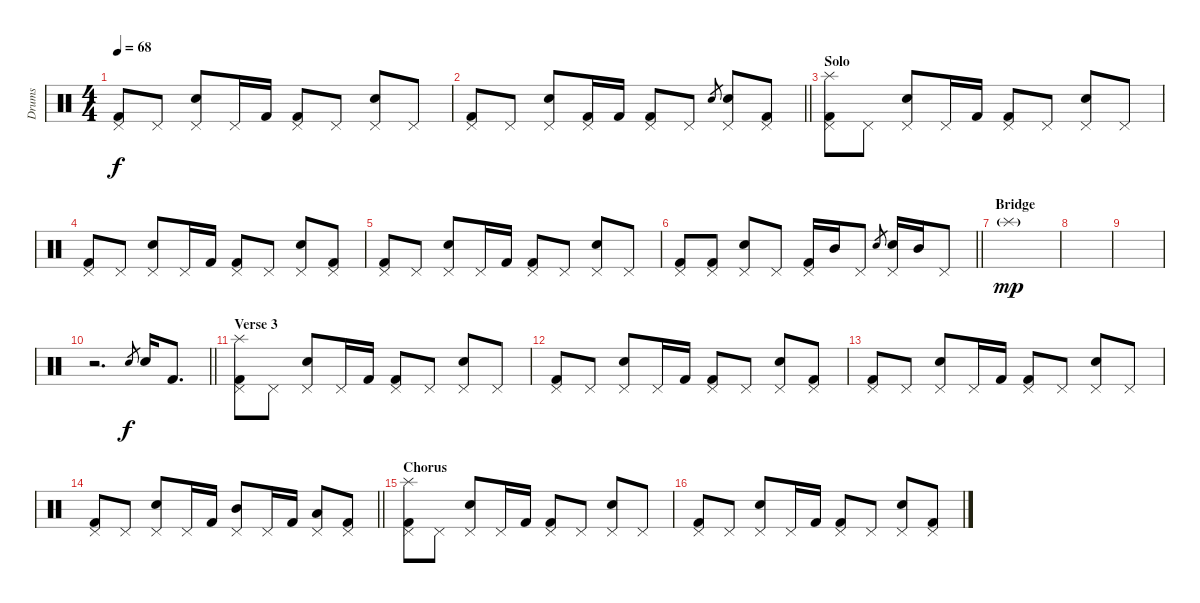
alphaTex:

\track ("Drums" "Drums") {instrument percussion}
\staff {score}
\articulation defaults
\ts (4 4)
\tempo 68
\clef neutral
\ks c
("Pedal Hi-Hat (hit)" "Kick (hit) 2").8{dy f} "Pedal Hi-Hat (hit)".8 ("Pedal Hi-Hat (hit)" "Electric Snare (hit)").8 "Pedal Hi-Hat (hit)".16 "Kick (hit) 2".16 ("Pedal Hi-Hat (hit)" "Kick (hit) 2").8 "Pedal Hi-Hat (hit)".8 ("Pedal Hi-Hat (hit)" "Electric Snare (hit)").8 "Pedal Hi-Hat (hit)".8 |
\barLineRight lightlight
("Pedal Hi-Hat (hit)" "Kick (hit) 2").8 "Pedal Hi-Hat (hit)".8 ("Pedal Hi-Hat (hit)" "Electric Snare (hit)").8 ("Pedal Hi-Hat (hit)" "Kick (hit) 2").16 "Kick (hit) 2".16 ("Pedal Hi-Hat (hit)" "Kick (hit) 2").8 "Pedal Hi-Hat (hit)".8 "Electric Snare (hit)"{h}.8{gr} ("Pedal Hi-Hat (hit)" "Electric Snare (hit)").8 ("Pedal Hi-Hat (hit)" "Kick (hit) 2").8 |
\section ("" "Solo")
("Pedal Hi-Hat (hit)" "Splash (hit)" "Kick (hit) 2").8 "Pedal Hi-Hat (hit)".8 ("Pedal Hi-Hat (hit)" "Electric Snare (hit)").8 "Pedal Hi-Hat (hit)".16 "Kick (hit) 2".16 ("Pedal Hi-Hat (hit)" "Kick (hit) 2").8 "Pedal Hi-Hat (hit)".8 ("Pedal Hi-Hat (hit)" "Electric Snare (hit)").8 "Pedal Hi-Hat (hit)".8 |
("Pedal Hi-Hat (hit)" "Kick (hit) 2").8 "Pedal Hi-Hat (hit)".8 ("Pedal Hi-Hat (hit)" "Electric Snare (hit)").8 "Pedal Hi-Hat (hit)".16 "Kick (hit) 2".16 ("Pedal Hi-Hat (hit)" "Kick (hit) 2").8 "Pedal Hi-Hat (hit)".8 ("Pedal Hi-Hat (hit)" "Electric Snare (hit)").8 ("Pedal Hi-Hat (hit)" "Kick (hit) 2").8 |
("Pedal Hi-Hat (hit)" "Kick (hit) 2").8 "Pedal Hi-Hat (hit)".8 ("Pedal Hi-Hat (hit)" "Electric Snare (hit)").8 "Pedal Hi-Hat (hit)".16 "Kick (hit) 2".16 ("Pedal Hi-Hat (hit)" "Kick (hit) 2").8 "Pedal Hi-Hat (hit)".8 ("Pedal Hi-Hat (hit)" "Electric Snare (hit)").8 "Pedal Hi-Hat (hit)".8 |
\barLineRight lightlight
("Pedal Hi-Hat (hit)" "Kick (hit) 2").8 ("Pedal Hi-Hat (hit)" "Kick (hit) 2").8 ("Pedal Hi-Hat (hit)" "Electric Snare (hit)").8 "Pedal Hi-Hat (hit)".8 ("Pedal Hi-Hat (hit)" "Kick (hit) 2").16 "Mid Tom (hit)".16 "Pedal Hi-Hat (hit)".8 "Electric Snare (hit)"{h}.8{gr} ("Pedal Hi-Hat (hit)" "Electric Snare (hit)").16 "Mid Tom (hit)".16 "Pedal Hi-Hat (hit)".8 |
\section ("" "Bridge")
"Splash (hit)"{g}.1{dy mp} |
|
|
\barLineRight lightlight
r.2{d} "Electric Snare (hit)"{h}.8{gr dy f} "Electric Snare (hit)".16 "Kick (hit) 2".8{d} |
\section ("" "Verse 3")
("Pedal Hi-Hat (hit)" "Splash (hit)" "Kick (hit) 2").8 "Pedal Hi-Hat (hit)".8 ("Pedal Hi-Hat (hit)" "Electric Snare (hit)").8 "Pedal Hi-Hat (hit)".16 "Kick (hit) 2".16 ("Pedal Hi-Hat (hit)" "Kick (hit) 2").8 "Pedal Hi-Hat (hit)".8 ("Pedal Hi-Hat (hit)" "Electric Snare (hit)").8 "Pedal Hi-Hat (hit)".8 |
("Pedal Hi-Hat (hit)" "Kick (hit) 2").8 "Pedal Hi-Hat (hit)".8 ("Pedal Hi-Hat (hit)" "Electric Snare (hit)").8 "Pedal Hi-Hat (hit)".16 "Kick (hit) 2".16 ("Pedal Hi-Hat (hit)" "Kick (hit) 2").8 "Pedal Hi-Hat (hit)".8 ("Pedal Hi-Hat (hit)" "Electric Snare (hit)").8 ("Pedal Hi-Hat (hit)" "Kick (hit) 2").8 |
("Pedal Hi-Hat (hit)" "Kick (hit) 2").8 "Pedal Hi-Hat (hit)".8 ("Pedal Hi-Hat (hit)" "Electric Snare (hit)").8 "Pedal Hi-Hat (hit)".16 "Kick (hit) 2".16 ("Pedal Hi-Hat (hit)" "Kick (hit) 2").8 "Pedal Hi-Hat (hit)".8 ("Pedal Hi-Hat (hit)" "Electric Snare (hit)").8 "Pedal Hi-Hat (hit)".8 |
\barLineRight lightlight
("Pedal Hi-Hat (hit)" "Kick (hit) 2").8 "Pedal Hi-Hat (hit)".8 ("Pedal Hi-Hat (hit)" "Electric Snare (hit)").8 "Pedal Hi-Hat (hit)".16 "Kick (hit) 2".16 ("Pedal Hi-Hat (hit)" "Mid Tom (hit)").8 "Pedal Hi-Hat (hit)".16 "Kick (hit) 2".16 ("Pedal Hi-Hat (hit)" "Low Tom (hit)").8 ("Pedal Hi-Hat (hit)" "Kick (hit) 2").8 |
\section ("" "Chorus")
("Pedal Hi-Hat (hit)" "Splash (hit)" "Kick (hit) 2").8 "Pedal Hi-Hat (hit)".8 ("Pedal Hi-Hat (hit)" "Electric Snare (hit)").8 "Pedal Hi-Hat (hit)".16 "Kick (hit) 2".16 ("Pedal Hi-Hat (hit)" "Kick (hit) 2").8 "Pedal Hi-Hat (hit)".8 ("Pedal Hi-Hat (hit)" "Electric Snare (hit)").8 "Pedal Hi-Hat (hit)".8 |
("Pedal Hi-Hat (hit)" "Kick (hit) 2").8 "Pedal Hi-Hat (hit)".8 ("Pedal Hi-Hat (hit)" "Electric Snare (hit)").8 "Pedal Hi-Hat (hit)".16 "Kick (hit) 2".16 ("Pedal Hi-Hat (hit)" "Kick (hit) 2").8 "Pedal Hi-Hat (hit)".8 ("Pedal Hi-Hat (hit)" "Electric Snare (hit)").8 ("Pedal Hi-Hat (hit)" "Kick (hit) 2").8
